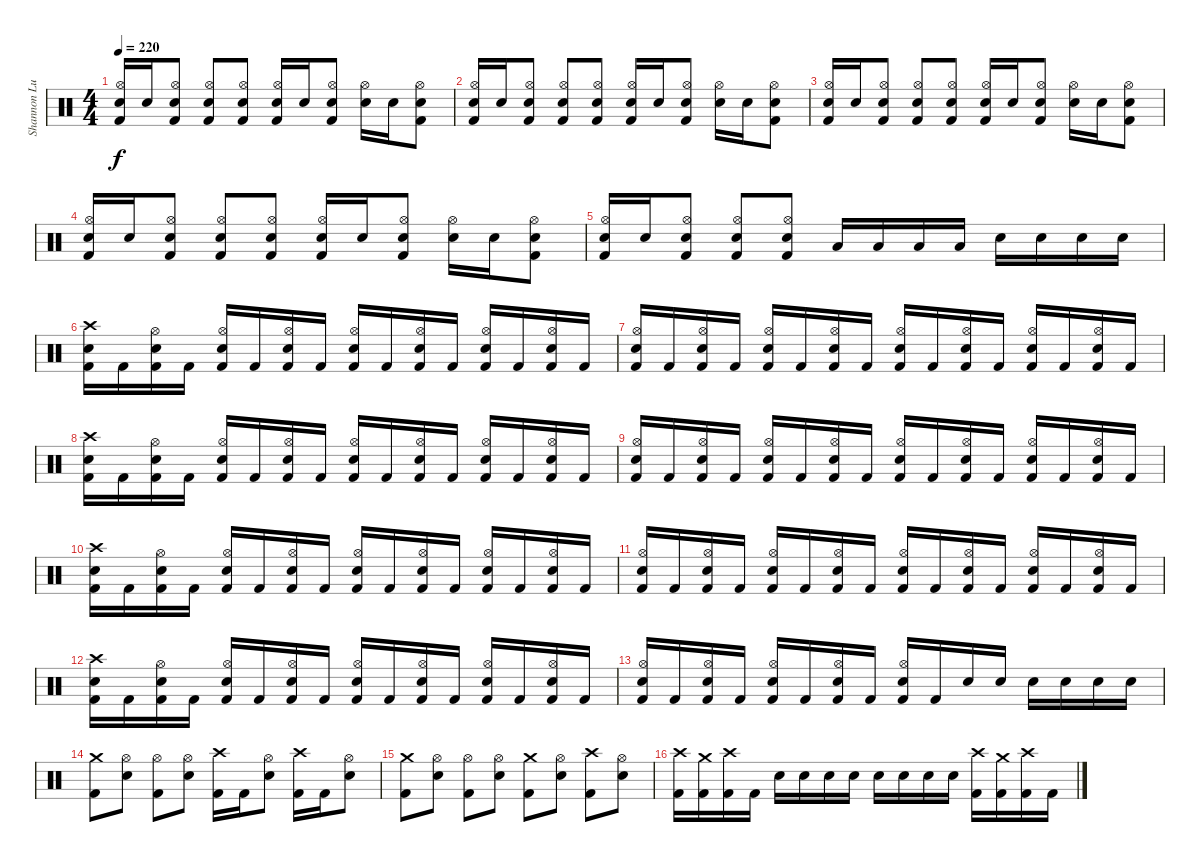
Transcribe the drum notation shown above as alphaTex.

\track ("Shannon Lucas [Drums (Since 2007)]" "Shannon Lu") {instrument percussion}
\staff {score}
\articulation defaults
\ts (4 4)
\tempo 220
\clef neutral
\ks c
("Kick (hit) 2" "Hi-Hat (open)" "Snare (hit) 2").16{dy f} "Snare (hit) 2".16 ("Kick (hit) 2" "Hi-Hat (open)" "Snare (hit) 2").8 ("Kick (hit) 2" "Hi-Hat (open)" "Snare (hit) 2").8 ("Kick (hit) 2" "Hi-Hat (open)" "Snare (hit) 2").8 ("Kick (hit) 2" "Hi-Hat (open)" "Snare (hit) 2").16 "Snare (hit) 2".16 ("Kick (hit) 2" "Hi-Hat (open)" "Snare (hit) 2").8 ("Hi-Hat (open)" "Snare (hit) 2").16 "Snare (hit) 2".16 ("Kick (hit) 2" "Hi-Hat (open)" "Snare (hit) 2").8 |
("Kick (hit) 2" "Hi-Hat (open)" "Snare (hit) 2").16 "Snare (hit) 2".16 ("Kick (hit) 2" "Hi-Hat (open)" "Snare (hit) 2").8 ("Kick (hit) 2" "Hi-Hat (open)" "Snare (hit) 2").8 ("Kick (hit) 2" "Hi-Hat (open)" "Snare (hit) 2").8 ("Kick (hit) 2" "Hi-Hat (open)" "Snare (hit) 2").16 "Snare (hit) 2".16 ("Kick (hit) 2" "Hi-Hat (open)" "Snare (hit) 2").8 ("Hi-Hat (open)" "Snare (hit) 2").16 "Snare (hit) 2".16 ("Kick (hit) 2" "Hi-Hat (open)" "Snare (hit) 2").8 |
("Kick (hit) 2" "Hi-Hat (open)" "Snare (hit) 2").16 "Snare (hit) 2".16 ("Kick (hit) 2" "Hi-Hat (open)" "Snare (hit) 2").8 ("Kick (hit) 2" "Hi-Hat (open)" "Snare (hit) 2").8 ("Kick (hit) 2" "Hi-Hat (open)" "Snare (hit) 2").8 ("Kick (hit) 2" "Hi-Hat (open)" "Snare (hit) 2").16 "Snare (hit) 2".16 ("Kick (hit) 2" "Hi-Hat (open)" "Snare (hit) 2").8 ("Hi-Hat (open)" "Snare (hit) 2").16 "Snare (hit) 2".16 ("Kick (hit) 2" "Hi-Hat (open)" "Snare (hit) 2").8 |
("Kick (hit) 2" "Hi-Hat (open)" "Snare (hit) 2").16 "Snare (hit) 2".16 ("Kick (hit) 2" "Hi-Hat (open)" "Snare (hit) 2").8 ("Kick (hit) 2" "Hi-Hat (open)" "Snare (hit) 2").8 ("Kick (hit) 2" "Hi-Hat (open)" "Snare (hit) 2").8 ("Kick (hit) 2" "Hi-Hat (open)" "Snare (hit) 2").16 "Snare (hit) 2".16 ("Kick (hit) 2" "Hi-Hat (open)" "Snare (hit) 2").8 ("Hi-Hat (open)" "Snare (hit) 2").16 "Snare (hit) 2".16 ("Kick (hit) 2" "Hi-Hat (open)" "Snare (hit) 2").8 |
("Kick (hit) 2" "Hi-Hat (open)" "Snare (hit) 2").16 "Snare (hit) 2".16 ("Kick (hit) 2" "Hi-Hat (open)" "Snare (hit) 2").8 ("Kick (hit) 2" "Hi-Hat (open)" "Snare (hit) 2").8 ("Kick (hit) 2" "Hi-Hat (open)" "Snare (hit) 2").8 "Low Tom (hit)".16 "Low Tom (hit)".16 "Low Tom (hit)".16 "Low Tom (hit)".16 "Snare (hit) 2".16 "Snare (hit) 2".16 "Snare (hit) 2".16 "Snare (hit) 2".16 |
("Crash high (hit)" "Snare (hit) 2" "Kick (hit) 2").16 "Kick (hit) 2".16 ("Hi-Hat (open)" "Snare (hit) 2" "Kick (hit) 2").16 "Kick (hit) 2".16 ("Hi-Hat (open)" "Snare (hit) 2" "Kick (hit) 2").16 "Kick (hit) 2".16 ("Hi-Hat (open)" "Snare (hit) 2" "Kick (hit) 2").16 "Kick (hit) 2".16 ("Hi-Hat (open)" "Snare (hit) 2" "Kick (hit) 2").16 "Kick (hit) 2".16 ("Hi-Hat (open)" "Snare (hit) 2" "Kick (hit) 2").16 "Kick (hit) 2".16 ("Hi-Hat (open)" "Snare (hit) 2" "Kick (hit) 2").16 "Kick (hit) 2".16 ("Hi-Hat (open)" "Snare (hit) 2" "Kick (hit) 2").16 "Kick (hit) 2".16 |
("Hi-Hat (open)" "Snare (hit) 2" "Kick (hit) 2").16 "Kick (hit) 2".16 ("Hi-Hat (open)" "Snare (hit) 2" "Kick (hit) 2").16 "Kick (hit) 2".16 ("Hi-Hat (open)" "Snare (hit) 2" "Kick (hit) 2").16 "Kick (hit) 2".16 ("Hi-Hat (open)" "Snare (hit) 2" "Kick (hit) 2").16 "Kick (hit) 2".16 ("Hi-Hat (open)" "Snare (hit) 2" "Kick (hit) 2").16 "Kick (hit) 2".16 ("Hi-Hat (open)" "Snare (hit) 2" "Kick (hit) 2").16 "Kick (hit) 2".16 ("Hi-Hat (open)" "Snare (hit) 2" "Kick (hit) 2").16 "Kick (hit) 2".16 ("Hi-Hat (open)" "Snare (hit) 2" "Kick (hit) 2").16 "Kick (hit) 2".16 |
("Crash high (hit)" "Snare (hit) 2" "Kick (hit) 2").16 "Kick (hit) 2".16 ("Hi-Hat (open)" "Snare (hit) 2" "Kick (hit) 2").16 "Kick (hit) 2".16 ("Hi-Hat (open)" "Snare (hit) 2" "Kick (hit) 2").16 "Kick (hit) 2".16 ("Hi-Hat (open)" "Snare (hit) 2" "Kick (hit) 2").16 "Kick (hit) 2".16 ("Hi-Hat (open)" "Snare (hit) 2" "Kick (hit) 2").16 "Kick (hit) 2".16 ("Hi-Hat (open)" "Snare (hit) 2" "Kick (hit) 2").16 "Kick (hit) 2".16 ("Hi-Hat (open)" "Snare (hit) 2" "Kick (hit) 2").16 "Kick (hit) 2".16 ("Hi-Hat (open)" "Snare (hit) 2" "Kick (hit) 2").16 "Kick (hit) 2".16 |
("Hi-Hat (open)" "Snare (hit) 2" "Kick (hit) 2").16 "Kick (hit) 2".16 ("Hi-Hat (open)" "Snare (hit) 2" "Kick (hit) 2").16 "Kick (hit) 2".16 ("Hi-Hat (open)" "Snare (hit) 2" "Kick (hit) 2").16 "Kick (hit) 2".16 ("Hi-Hat (open)" "Snare (hit) 2" "Kick (hit) 2").16 "Kick (hit) 2".16 ("Hi-Hat (open)" "Snare (hit) 2" "Kick (hit) 2").16 "Kick (hit) 2".16 ("Hi-Hat (open)" "Snare (hit) 2" "Kick (hit) 2").16 "Kick (hit) 2".16 ("Hi-Hat (open)" "Snare (hit) 2" "Kick (hit) 2").16 "Kick (hit) 2".16 ("Hi-Hat (open)" "Snare (hit) 2" "Kick (hit) 2").16 "Kick (hit) 2".16 |
("Crash high (hit)" "Snare (hit) 2" "Kick (hit) 2").16 "Kick (hit) 2".16 ("Hi-Hat (open)" "Snare (hit) 2" "Kick (hit) 2").16 "Kick (hit) 2".16 ("Hi-Hat (open)" "Snare (hit) 2" "Kick (hit) 2").16 "Kick (hit) 2".16 ("Hi-Hat (open)" "Snare (hit) 2" "Kick (hit) 2").16 "Kick (hit) 2".16 ("Hi-Hat (open)" "Snare (hit) 2" "Kick (hit) 2").16 "Kick (hit) 2".16 ("Hi-Hat (open)" "Snare (hit) 2" "Kick (hit) 2").16 "Kick (hit) 2".16 ("Hi-Hat (open)" "Snare (hit) 2" "Kick (hit) 2").16 "Kick (hit) 2".16 ("Hi-Hat (open)" "Snare (hit) 2" "Kick (hit) 2").16 "Kick (hit) 2".16 |
("Hi-Hat (open)" "Snare (hit) 2" "Kick (hit) 2").16 "Kick (hit) 2".16 ("Hi-Hat (open)" "Snare (hit) 2" "Kick (hit) 2").16 "Kick (hit) 2".16 ("Hi-Hat (open)" "Snare (hit) 2" "Kick (hit) 2").16 "Kick (hit) 2".16 ("Hi-Hat (open)" "Snare (hit) 2" "Kick (hit) 2").16 "Kick (hit) 2".16 ("Hi-Hat (open)" "Snare (hit) 2" "Kick (hit) 2").16 "Kick (hit) 2".16 ("Hi-Hat (open)" "Snare (hit) 2" "Kick (hit) 2").16 "Kick (hit) 2".16 ("Hi-Hat (open)" "Snare (hit) 2" "Kick (hit) 2").16 "Kick (hit) 2".16 ("Hi-Hat (open)" "Snare (hit) 2" "Kick (hit) 2").16 "Kick (hit) 2".16 |
("Crash high (hit)" "Snare (hit) 2" "Kick (hit) 2").16 "Kick (hit) 2".16 ("Hi-Hat (open)" "Snare (hit) 2" "Kick (hit) 2").16 "Kick (hit) 2".16 ("Hi-Hat (open)" "Snare (hit) 2" "Kick (hit) 2").16 "Kick (hit) 2".16 ("Hi-Hat (open)" "Snare (hit) 2" "Kick (hit) 2").16 "Kick (hit) 2".16 ("Hi-Hat (open)" "Snare (hit) 2" "Kick (hit) 2").16 "Kick (hit) 2".16 ("Hi-Hat (open)" "Snare (hit) 2" "Kick (hit) 2").16 "Kick (hit) 2".16 ("Hi-Hat (open)" "Snare (hit) 2" "Kick (hit) 2").16 "Kick (hit) 2".16 ("Hi-Hat (open)" "Snare (hit) 2" "Kick (hit) 2").16 "Kick (hit) 2".16 |
("Hi-Hat (open)" "Snare (hit) 2" "Kick (hit) 2").16 "Kick (hit) 2".16 ("Hi-Hat (open)" "Snare (hit) 2" "Kick (hit) 2").16 "Kick (hit) 2".16 ("Hi-Hat (open)" "Snare (hit) 2" "Kick (hit) 2").16 "Kick (hit) 2".16 ("Hi-Hat (open)" "Snare (hit) 2" "Kick (hit) 2").16 "Kick (hit) 2".16 ("Hi-Hat (open)" "Snare (hit) 2" "Kick (hit) 2").16 "Kick (hit) 2".16 "Snare (hit) 2".16 "Snare (hit) 2".16 "Snare (hit) 2".16 "Snare (hit) 2".16 "Snare (hit) 2".16 "Snare (hit) 2".16 |
("Crash medium (hit)" "Kick (hit) 2").8 ("Hi-Hat (open)" "Snare (hit) 2").8 ("Hi-Hat (open)" "Kick (hit) 2").8 ("Hi-Hat (open)" "Snare (hit) 2").8 ("Crash high (hit)" "Kick (hit) 2").16 "Kick (hit) 2".16 ("Hi-Hat (open)" "Snare (hit) 2").8 ("Crash high (hit)" "Kick (hit) 2").16 "Kick (hit) 2".16 ("Hi-Hat (open)" "Snare (hit) 2").8 |
("Crash medium (hit)" "Kick (hit) 2").8 ("Hi-Hat (open)" "Snare (hit) 2").8 ("Hi-Hat (open)" "Kick (hit) 2").8 ("Hi-Hat (open)" "Snare (hit) 2").8 ("Crash medium (hit)" "Kick (hit) 2").8 ("Hi-Hat (open)" "Snare (hit) 2").8 ("Crash high (hit)" "Kick (hit) 2").8 ("Hi-Hat (open)" "Snare (hit) 2").8 |
("Crash high (hit)" "Kick (hit) 2").16 ("Crash medium (hit)" "Kick (hit) 2").16 ("Crash high (hit)" "Kick (hit) 2").16 "Kick (hit) 2".16 "Snare (hit) 2".16 "Snare (hit) 2".16 "Snare (hit) 2".16 "Snare (hit) 2".16 "Snare (hit) 2".16 "Snare (hit) 2".16 "Snare (hit) 2".16 "Snare (hit) 2".16 ("Crash high (hit)" "Kick (hit) 2").16 ("Crash medium (hit)" "Kick (hit) 2").16 ("Crash high (hit)" "Kick (hit) 2").16 "Kick (hit) 2".16
